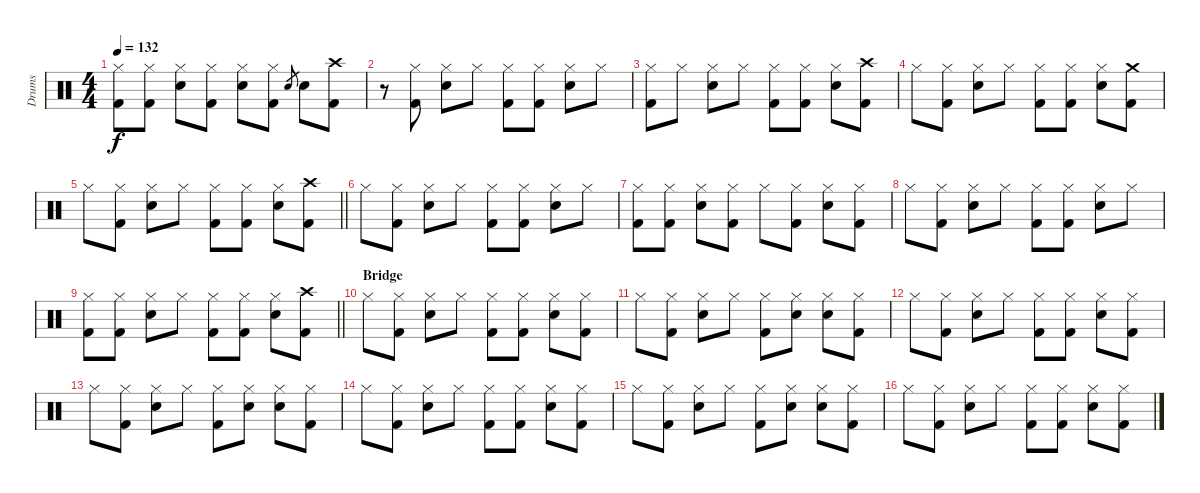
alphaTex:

\track ("Drums" "Drums") {instrument percussion}
\staff {score}
\articulation defaults
\ts (4 4)
\tempo 132
\clef neutral
\ks c
("Hi-Hat (closed)" "Kick (hit) 2").8{dy f} ("Hi-Hat (closed)" "Kick (hit) 2").8 ("Hi-Hat (closed)" "Electric Snare (hit)").8 ("Hi-Hat (closed)" "Kick (hit) 2").8 ("Hi-Hat (closed)" "Electric Snare (hit)").8 ("Hi-Hat (closed)" "Kick (hit) 2").8 "Electric Snare (hit)".8{gr} "Electric Snare (hit)".8 ("Crash high (hit)" "Kick (hit) 2").8 |
r.8 ("Hi-Hat (closed)" "Kick (hit) 2").8 ("Hi-Hat (closed)" "Electric Snare (hit)").8 "Hi-Hat (closed)".8 ("Hi-Hat (closed)" "Kick (hit) 2").8 ("Hi-Hat (closed)" "Kick (hit) 2").8 ("Hi-Hat (closed)" "Electric Snare (hit)").8 "Hi-Hat (closed)".8 |
("Hi-Hat (closed)" "Kick (hit) 2").8 "Hi-Hat (closed)".8 ("Hi-Hat (closed)" "Electric Snare (hit)").8 "Hi-Hat (closed)".8 ("Hi-Hat (closed)" "Kick (hit) 2").8 ("Hi-Hat (closed)" "Kick (hit) 2").8 ("Hi-Hat (closed)" "Electric Snare (hit)").8 ("Crash high (hit)" "Kick (hit) 2").8 |
"Hi-Hat (closed)".8 ("Hi-Hat (closed)" "Kick (hit) 2").8 ("Hi-Hat (closed)" "Electric Snare (hit)").8 "Hi-Hat (closed)".8 ("Hi-Hat (closed)" "Kick (hit) 2").8 ("Hi-Hat (closed)" "Kick (hit) 2").8 ("Hi-Hat (closed)" "Electric Snare (hit)").8 ("Crash medium (hit)" "Kick (hit) 2").8 |
\barLineRight lightlight "Hi-Hat (closed)".8
("Hi-Hat (closed)" "Kick (hit) 2").8 ("Hi-Hat (closed)" "Electric Snare (hit)").8 "Hi-Hat (closed)".8 ("Hi-Hat (closed)" "Kick (hit) 2").8 ("Hi-Hat (closed)" "Kick (hit) 2").8 ("Hi-Hat (closed)" "Electric Snare (hit)").8 ("Crash high (hit)" "Kick (hit) 2").8 |
\section ("" "")
"Hi-Hat (closed)".8 ("Hi-Hat (closed)" "Kick (hit) 2").8 ("Hi-Hat (closed)" "Electric Snare (hit)").8 "Hi-Hat (closed)".8 ("Hi-Hat (closed)" "Kick (hit) 2").8 ("Hi-Hat (closed)" "Kick (hit) 2").8 ("Hi-Hat (closed)" "Electric Snare (hit)").8 "Hi-Hat (closed)".8 |
("Hi-Hat (closed)" "Kick (hit) 2").8 ("Hi-Hat (closed)" "Kick (hit) 2").8 ("Hi-Hat (closed)" "Electric Snare (hit)").8 ("Hi-Hat (closed)" "Kick (hit) 2").8 "Hi-Hat (closed)".8 ("Hi-Hat (closed)" "Kick (hit) 2").8 ("Hi-Hat (closed)" "Electric Snare (hit)").8 ("Hi-Hat (closed)" "Kick (hit) 2").8 |
"Hi-Hat (closed)".8 ("Hi-Hat (closed)" "Kick (hit) 2").8 ("Hi-Hat (closed)" "Electric Snare (hit)").8 "Hi-Hat (closed)".8 ("Hi-Hat (closed)" "Kick (hit) 2").8 ("Hi-Hat (closed)" "Kick (hit) 2").8 ("Hi-Hat (closed)" "Electric Snare (hit)").8 "Hi-Hat (closed)".8 |
\barLineRight lightlight
("Hi-Hat (closed)" "Kick (hit) 2").8 ("Hi-Hat (closed)" "Kick (hit) 2").8 ("Hi-Hat (closed)" "Electric Snare (hit)").8 "Hi-Hat (closed)".8 ("Hi-Hat (closed)" "Kick (hit) 2").8 ("Hi-Hat (closed)" "Kick (hit) 2").8 ("Hi-Hat (closed)" "Electric Snare (hit)").8 ("Crash high (hit)" "Kick (hit) 2").8 |
\section ("" "Bridge")
"Hi-Hat (closed)".8 ("Hi-Hat (closed)" "Kick (hit) 2").8 ("Hi-Hat (closed)" "Electric Snare (hit)").8 "Hi-Hat (closed)".8 ("Hi-Hat (closed)" "Kick (hit) 2").8 ("Hi-Hat (closed)" "Kick (hit) 2").8 ("Hi-Hat (closed)" "Electric Snare (hit)").8 ("Hi-Hat (closed)" "Kick (hit) 2").8 |
"Hi-Hat (closed)".8 ("Hi-Hat (closed)" "Kick (hit) 2").8 ("Hi-Hat (closed)" "Electric Snare (hit)").8 "Hi-Hat (closed)".8 ("Hi-Hat (closed)" "Kick (hit) 2").8 ("Hi-Hat (closed)" "Electric Snare (hit)").8 ("Hi-Hat (closed)" "Electric Snare (hit)").8 ("Hi-Hat (closed)" "Kick (hit) 2").8 |
"Hi-Hat (closed)".8 ("Hi-Hat (closed)" "Kick (hit) 2").8 ("Hi-Hat (closed)" "Electric Snare (hit)").8 "Hi-Hat (closed)".8 ("Hi-Hat (closed)" "Kick (hit) 2").8 ("Hi-Hat (closed)" "Kick (hit) 2").8 ("Hi-Hat (closed)" "Electric Snare (hit)").8 ("Hi-Hat (closed)" "Kick (hit) 2").8 |
"Hi-Hat (closed)".8 ("Hi-Hat (closed)" "Kick (hit) 2").8 ("Hi-Hat (closed)" "Electric Snare (hit)").8 "Hi-Hat (closed)".8 ("Hi-Hat (closed)" "Kick (hit) 2").8 ("Hi-Hat (closed)" "Electric Snare (hit)").8 ("Hi-Hat (closed)" "Electric Snare (hit)").8 ("Hi-Hat (closed)" "Kick (hit) 2").8 |
"Hi-Hat (closed)".8 ("Hi-Hat (closed)" "Kick (hit) 2").8 ("Hi-Hat (closed)" "Electric Snare (hit)").8 "Hi-Hat (closed)".8 ("Hi-Hat (closed)" "Kick (hit) 2").8 ("Hi-Hat (closed)" "Kick (hit) 2").8 ("Hi-Hat (closed)" "Electric Snare (hit)").8 ("Hi-Hat (closed)" "Kick (hit) 2").8 |
"Hi-Hat (closed)".8 ("Hi-Hat (closed)" "Kick (hit) 2").8 ("Hi-Hat (closed)" "Electric Snare (hit)").8 "Hi-Hat (closed)".8 ("Hi-Hat (closed)" "Kick (hit) 2").8 ("Hi-Hat (closed)" "Electric Snare (hit)").8 ("Hi-Hat (closed)" "Electric Snare (hit)").8 ("Hi-Hat (closed)" "Kick (hit) 2").8 |
"Hi-Hat (closed)".8 ("Hi-Hat (closed)" "Kick (hit) 2").8 ("Hi-Hat (closed)" "Electric Snare (hit)").8 "Hi-Hat (closed)".8 ("Hi-Hat (closed)" "Kick (hit) 2").8 ("Hi-Hat (closed)" "Kick (hit) 2").8 ("Hi-Hat (closed)" "Electric Snare (hit)").8 ("Hi-Hat (closed)" "Kick (hit) 2").8
